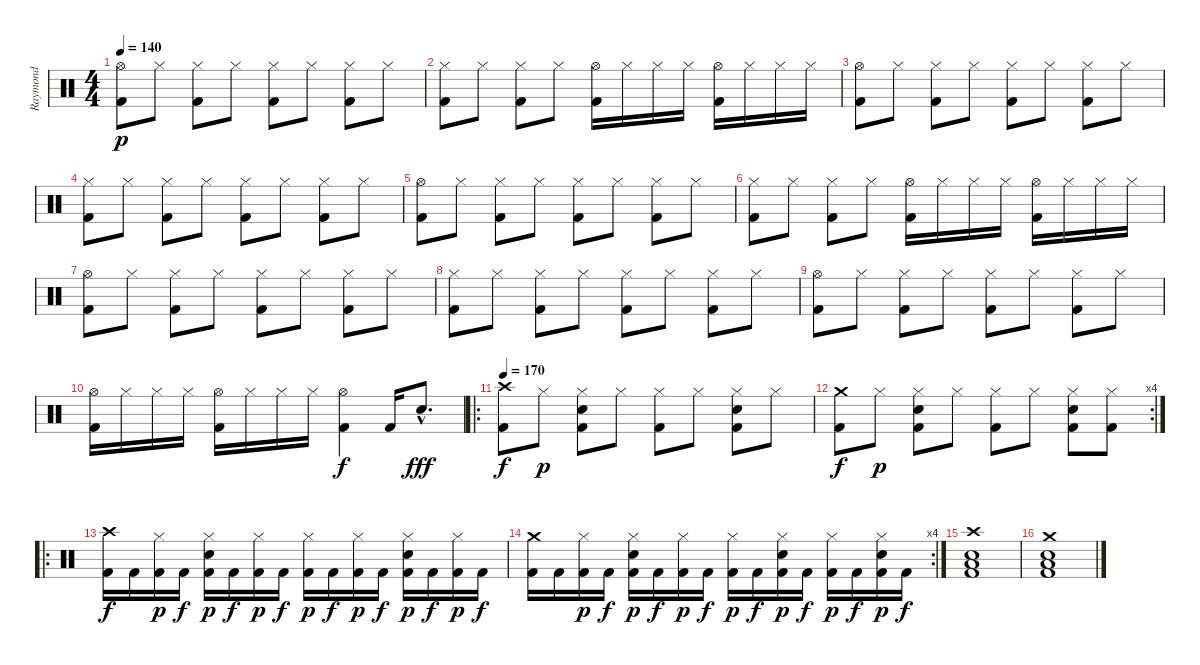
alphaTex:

\track ("Raymond" "Raymond") {instrument percussion}
\staff {score}
\articulation defaults
\ts (4 4)
\tempo 140
\clef neutral
\ks c
("Hi-Hat (open)" "Kick (hit) 2").8{dy p} "Hi-Hat (closed)".8 ("Hi-Hat (closed)" "Kick (hit) 2").8 "Hi-Hat (closed)".8 ("Hi-Hat (closed)" "Kick (hit) 2").8 "Hi-Hat (closed)".8 ("Hi-Hat (closed)" "Kick (hit) 2").8 "Hi-Hat (closed)".8 |
("Hi-Hat (closed)" "Kick (hit) 2").8 "Hi-Hat (closed)".8 ("Hi-Hat (closed)" "Kick (hit) 2").8 "Hi-Hat (closed)".8 ("Hi-Hat (open)" "Kick (hit) 2").16 "Hi-Hat (closed)".16 "Hi-Hat (closed)".16 "Hi-Hat (closed)".16 ("Hi-Hat (open)" "Kick (hit) 2").16 "Hi-Hat (closed)".16 "Hi-Hat (closed)".16 "Hi-Hat (closed)".16 |
("Hi-Hat (open)" "Kick (hit) 2").8 "Hi-Hat (closed)".8 ("Hi-Hat (closed)" "Kick (hit) 2").8 "Hi-Hat (closed)".8 ("Hi-Hat (closed)" "Kick (hit) 2").8 "Hi-Hat (closed)".8 ("Hi-Hat (closed)" "Kick (hit) 2").8 "Hi-Hat (closed)".8 |
("Hi-Hat (closed)" "Kick (hit) 2").8 "Hi-Hat (closed)".8 ("Hi-Hat (closed)" "Kick (hit) 2").8 "Hi-Hat (closed)".8 ("Hi-Hat (closed)" "Kick (hit) 2").8 "Hi-Hat (closed)".8 ("Hi-Hat (closed)" "Kick (hit) 2").8 "Hi-Hat (closed)".8 |
("Hi-Hat (open)" "Kick (hit) 2").8 "Hi-Hat (closed)".8 ("Hi-Hat (closed)" "Kick (hit) 2").8 "Hi-Hat (closed)".8 ("Hi-Hat (closed)" "Kick (hit) 2").8 "Hi-Hat (closed)".8 ("Hi-Hat (closed)" "Kick (hit) 2").8 "Hi-Hat (closed)".8 |
("Hi-Hat (closed)" "Kick (hit) 2").8 "Hi-Hat (closed)".8 ("Hi-Hat (closed)" "Kick (hit) 2").8 "Hi-Hat (closed)".8 ("Hi-Hat (open)" "Kick (hit) 2").16 "Hi-Hat (closed)".16 "Hi-Hat (closed)".16 "Hi-Hat (closed)".16 ("Hi-Hat (open)" "Kick (hit) 2").16 "Hi-Hat (closed)".16 "Hi-Hat (closed)".16 "Hi-Hat (closed)".16 |
("Hi-Hat (open)" "Kick (hit) 2").8 "Hi-Hat (closed)".8 ("Hi-Hat (closed)" "Kick (hit) 2").8 "Hi-Hat (closed)".8 ("Hi-Hat (closed)" "Kick (hit) 2").8 "Hi-Hat (closed)".8 ("Hi-Hat (closed)" "Kick (hit) 2").8 "Hi-Hat (closed)".8 |
("Hi-Hat (closed)" "Kick (hit) 2").8 "Hi-Hat (closed)".8 ("Hi-Hat (closed)" "Kick (hit) 2").8 "Hi-Hat (closed)".8 ("Hi-Hat (closed)" "Kick (hit) 2").8 "Hi-Hat (closed)".8 ("Hi-Hat (closed)" "Kick (hit) 2").8 "Hi-Hat (closed)".8 |
("Hi-Hat (open)" "Kick (hit) 2").8 "Hi-Hat (closed)".8 ("Hi-Hat (closed)" "Kick (hit) 2").8 "Hi-Hat (closed)".8 ("Hi-Hat (closed)" "Kick (hit) 2").8 "Hi-Hat (closed)".8 ("Hi-Hat (closed)" "Kick (hit) 2").8 "Hi-Hat (closed)".8 |
("Hi-Hat (open)" "Kick (hit) 2").16 "Hi-Hat (closed)".16 "Hi-Hat (closed)".16 "Hi-Hat (closed)".16 ("Hi-Hat (open)" "Kick (hit) 2").16 "Hi-Hat (closed)".16 "Hi-Hat (closed)".16 "Hi-Hat (closed)".16 ("Hi-Hat (open)" "Kick (hit) 2").4{dy f} "Kick (hit) 2".16 "Electric Snare (hit)"{hac}.8{d dy fff} |
\ro
\tempo 170
("Crash high (hit)" "Kick (hit) 2").8{dy f} "Hi-Hat (closed)".8{dy p} ("Hi-Hat (closed)" "Electric Snare (hit)" "Kick (hit) 2").8 "Hi-Hat (closed)".8 ("Hi-Hat (closed)" "Kick (hit) 2").8 "Hi-Hat (closed)".8 ("Hi-Hat (closed)" "Electric Snare (hit)" "Kick (hit) 2").8 "Hi-Hat (closed)".8 |
\rc 4
("Crash medium (hit)" "Kick (hit) 2").8{dy f} "Hi-Hat (closed)".8{dy p} ("Hi-Hat (closed)" "Electric Snare (hit)" "Kick (hit) 2").8 "Hi-Hat (closed)".8 ("Hi-Hat (closed)" "Kick (hit) 2").8 "Hi-Hat (closed)".8 ("Hi-Hat (closed)" "Electric Snare (hit)" "Kick (hit) 2").8 ("Hi-Hat (closed)" "Kick (hit) 2").8 |
\ro
("Crash high (hit)" "Kick (hit) 2").16{dy f} "Kick (hit) 2".16 ("Hi-Hat (closed)" "Kick (hit) 2").16{dy p} "Kick (hit) 2".16{dy f} ("Hi-Hat (closed)" "Electric Snare (hit)" "Kick (hit) 2").16{dy p} "Kick (hit) 2".16{dy f} ("Hi-Hat (closed)" "Kick (hit) 2").16{dy p} "Kick (hit) 2".16{dy f} ("Hi-Hat (closed)" "Kick (hit) 2").16{dy p} "Kick (hit) 2".16{dy f} ("Hi-Hat (closed)" "Kick (hit) 2").16{dy p} "Kick (hit) 2".16{dy f} ("Hi-Hat (closed)" "Electric Snare (hit)" "Kick (hit) 2").16{dy p} "Kick (hit) 2".16{dy f} ("Hi-Hat (closed)" "Kick (hit) 2").16{dy p} "Kick (hit) 2".16{dy f} |
\rc 4
("Crash medium (hit)" "Kick (hit) 2").16 "Kick (hit) 2".16 ("Hi-Hat (closed)" "Kick (hit) 2").16{dy p} "Kick (hit) 2".16{dy f} ("Hi-Hat (closed)" "Electric Snare (hit)" "Kick (hit) 2").16{dy p} "Kick (hit) 2".16{dy f} ("Hi-Hat (closed)" "Kick (hit) 2").16{dy p} "Kick (hit) 2".16{dy f} ("Hi-Hat (closed)" "Kick (hit) 2").16{dy p} "Kick (hit) 2".16{dy f} ("Hi-Hat (closed)" "Electric Snare (hit)" "Kick (hit) 2").16{dy p} "Kick (hit) 2".16{dy f} ("Hi-Hat (closed)" "Kick (hit) 2").16{dy p} "Kick (hit) 2".16{dy f} ("Hi-Hat (closed)" "Electric Snare (hit)" "Kick (hit) 2").16{dy p} "Kick (hit) 2".16{dy f} |
("Crash high (hit)" "Electric Snare (hit)" "Low Tom (hit)" "Kick (hit) 2").1 |
("Crash medium (hit)" "Electric Snare (hit)" "Low Tom (hit)" "Kick (hit) 2").1
